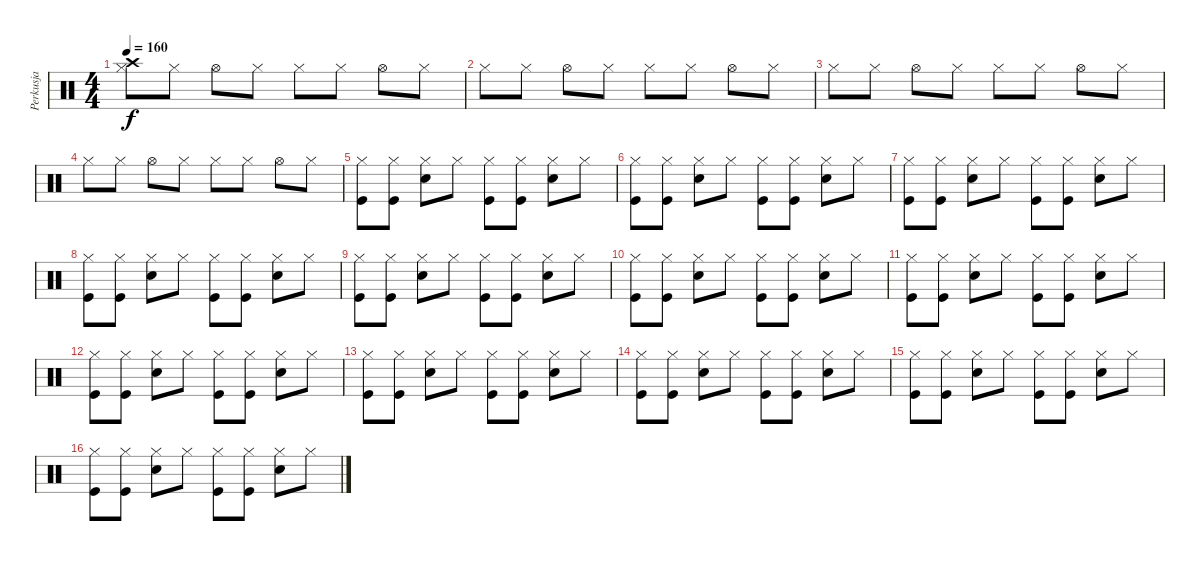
\track ("Perkusja" "Perkusja") {instrument percussion}
\staff {score}
\articulation defaults
\ts (4 4)
\tempo 160
\clef neutral
\ks c
("Hi-Hat (closed)" "Crash high (hit)").8{dy f} "Hi-Hat (closed)".8 "Hi-Hat (open)".8 "Hi-Hat (closed)".8 "Hi-Hat (closed)".8 "Hi-Hat (closed)".8 "Hi-Hat (open)".8 "Hi-Hat (closed)".8 |
"Hi-Hat (closed)".8 "Hi-Hat (closed)".8 "Hi-Hat (open)".8 "Hi-Hat (closed)".8 "Hi-Hat (closed)".8 "Hi-Hat (closed)".8 "Hi-Hat (open)".8 "Hi-Hat (closed)".8 |
"Hi-Hat (closed)".8 "Hi-Hat (closed)".8 "Hi-Hat (open)".8 "Hi-Hat (closed)".8 "Hi-Hat (closed)".8 "Hi-Hat (closed)".8 "Hi-Hat (open)".8 "Hi-Hat (closed)".8 |
"Hi-Hat (closed)".8 "Hi-Hat (closed)".8 "Hi-Hat (open)".8 "Hi-Hat (closed)".8 "Hi-Hat (closed)".8 "Hi-Hat (closed)".8 "Hi-Hat (open)".8 "Hi-Hat (closed)".8 |
("Hi-Hat (closed)" "Kick (hit)").8 ("Hi-Hat (closed)" "Kick (hit)").8 ("Hi-Hat (closed)" "Electric Snare (hit)").8 "Hi-Hat (closed)".8 ("Hi-Hat (closed)" "Kick (hit)").8 ("Hi-Hat (closed)" "Kick (hit)").8 ("Hi-Hat (closed)" "Electric Snare (hit)").8 "Hi-Hat (closed)".8 |
("Hi-Hat (closed)" "Kick (hit)").8 ("Hi-Hat (closed)" "Kick (hit)").8 ("Hi-Hat (closed)" "Electric Snare (hit)").8 "Hi-Hat (closed)".8 ("Hi-Hat (closed)" "Kick (hit)").8 ("Hi-Hat (closed)" "Kick (hit)").8 ("Hi-Hat (closed)" "Electric Snare (hit)").8 "Hi-Hat (closed)".8 |
("Hi-Hat (closed)" "Kick (hit)").8 ("Hi-Hat (closed)" "Kick (hit)").8 ("Hi-Hat (closed)" "Electric Snare (hit)").8 "Hi-Hat (closed)".8 ("Hi-Hat (closed)" "Kick (hit)").8 ("Hi-Hat (closed)" "Kick (hit)").8 ("Hi-Hat (closed)" "Electric Snare (hit)").8 "Hi-Hat (closed)".8 |
("Hi-Hat (closed)" "Kick (hit)").8 ("Hi-Hat (closed)" "Kick (hit)").8 ("Hi-Hat (closed)" "Electric Snare (hit)").8 "Hi-Hat (closed)".8 ("Hi-Hat (closed)" "Kick (hit)").8 ("Hi-Hat (closed)" "Kick (hit)").8 ("Hi-Hat (closed)" "Electric Snare (hit)").8 "Hi-Hat (closed)".8 |
("Hi-Hat (closed)" "Kick (hit)").8 ("Hi-Hat (closed)" "Kick (hit)").8 ("Hi-Hat (closed)" "Electric Snare (hit)").8 "Hi-Hat (closed)".8 ("Hi-Hat (closed)" "Kick (hit)").8 ("Hi-Hat (closed)" "Kick (hit)").8 ("Hi-Hat (closed)" "Electric Snare (hit)").8 "Hi-Hat (closed)".8 |
("Hi-Hat (closed)" "Kick (hit)").8 ("Hi-Hat (closed)" "Kick (hit)").8 ("Hi-Hat (closed)" "Electric Snare (hit)").8 "Hi-Hat (closed)".8 ("Hi-Hat (closed)" "Kick (hit)").8 ("Hi-Hat (closed)" "Kick (hit)").8 ("Hi-Hat (closed)" "Electric Snare (hit)").8 "Hi-Hat (closed)".8 |
("Hi-Hat (closed)" "Kick (hit)").8 ("Hi-Hat (closed)" "Kick (hit)").8 ("Hi-Hat (closed)" "Electric Snare (hit)").8 "Hi-Hat (closed)".8 ("Hi-Hat (closed)" "Kick (hit)").8 ("Hi-Hat (closed)" "Kick (hit)").8 ("Hi-Hat (closed)" "Electric Snare (hit)").8 "Hi-Hat (closed)".8 |
("Hi-Hat (closed)" "Kick (hit)").8 ("Hi-Hat (closed)" "Kick (hit)").8 ("Hi-Hat (closed)" "Electric Snare (hit)").8 "Hi-Hat (closed)".8 ("Hi-Hat (closed)" "Kick (hit)").8 ("Hi-Hat (closed)" "Kick (hit)").8 ("Hi-Hat (closed)" "Electric Snare (hit)").8 "Hi-Hat (closed)".8 |
("Hi-Hat (closed)" "Kick (hit)").8 ("Hi-Hat (closed)" "Kick (hit)").8 ("Hi-Hat (closed)" "Electric Snare (hit)").8 "Hi-Hat (closed)".8 ("Hi-Hat (closed)" "Kick (hit)").8 ("Hi-Hat (closed)" "Kick (hit)").8 ("Hi-Hat (closed)" "Electric Snare (hit)").8 "Hi-Hat (closed)".8 |
("Hi-Hat (closed)" "Kick (hit)").8 ("Hi-Hat (closed)" "Kick (hit)").8 ("Hi-Hat (closed)" "Electric Snare (hit)").8 "Hi-Hat (closed)".8 ("Hi-Hat (closed)" "Kick (hit)").8 ("Hi-Hat (closed)" "Kick (hit)").8 ("Hi-Hat (closed)" "Electric Snare (hit)").8 "Hi-Hat (closed)".8 |
("Hi-Hat (closed)" "Kick (hit)").8 ("Hi-Hat (closed)" "Kick (hit)").8 ("Hi-Hat (closed)" "Electric Snare (hit)").8 "Hi-Hat (closed)".8 ("Hi-Hat (closed)" "Kick (hit)").8 ("Hi-Hat (closed)" "Kick (hit)").8 ("Hi-Hat (closed)" "Electric Snare (hit)").8 "Hi-Hat (closed)".8 |
("Hi-Hat (closed)" "Kick (hit)").8 ("Hi-Hat (closed)" "Kick (hit)").8 ("Hi-Hat (closed)" "Electric Snare (hit)").8 "Hi-Hat (closed)".8 ("Hi-Hat (closed)" "Kick (hit)").8 ("Hi-Hat (closed)" "Kick (hit)").8 ("Hi-Hat (closed)" "Electric Snare (hit)").8 "Hi-Hat (closed)".8
